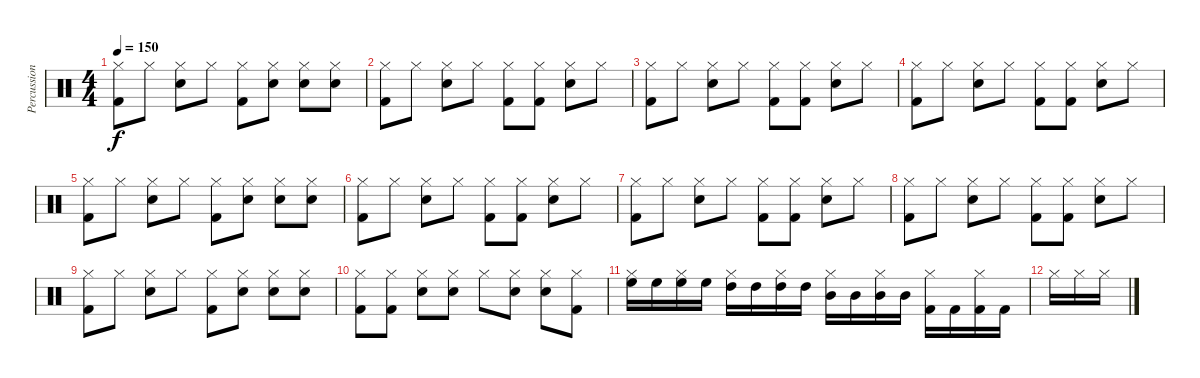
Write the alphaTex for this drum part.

\track ("Percussion" "Percussion") {instrument percussion}
\staff {score}
\articulation defaults
\ts (4 4)
\tempo 150
\clef neutral
\ks c
("Hi-Hat (closed)" "Kick (hit) 2").8{dy f} "Hi-Hat (closed)".8 ("Hi-Hat (closed)" "Electric Snare (hit)").8 "Hi-Hat (closed)".8 ("Hi-Hat (closed)" "Kick (hit) 2").8 ("Hi-Hat (closed)" "Electric Snare (hit)").8 ("Hi-Hat (closed)" "Electric Snare (hit)").8 ("Hi-Hat (closed)" "Electric Snare (hit)").8 |
("Hi-Hat (closed)" "Kick (hit) 2").8 "Hi-Hat (closed)".8 ("Hi-Hat (closed)" "Electric Snare (hit)").8 "Hi-Hat (closed)".8 ("Hi-Hat (closed)" "Kick (hit) 2").8 ("Hi-Hat (closed)" "Kick (hit) 2").8 ("Hi-Hat (closed)" "Electric Snare (hit)").8 "Hi-Hat (closed)".8 |
("Hi-Hat (closed)" "Kick (hit) 2").8 "Hi-Hat (closed)".8 ("Hi-Hat (closed)" "Electric Snare (hit)").8 "Hi-Hat (closed)".8 ("Hi-Hat (closed)" "Kick (hit) 2").8 ("Hi-Hat (closed)" "Kick (hit) 2").8 ("Hi-Hat (closed)" "Electric Snare (hit)").8 "Hi-Hat (closed)".8 |
("Hi-Hat (closed)" "Kick (hit) 2").8 "Hi-Hat (closed)".8 ("Hi-Hat (closed)" "Electric Snare (hit)").8 "Hi-Hat (closed)".8 ("Hi-Hat (closed)" "Kick (hit) 2").8 ("Hi-Hat (closed)" "Kick (hit) 2").8 ("Hi-Hat (closed)" "Electric Snare (hit)").8 "Hi-Hat (closed)".8 |
("Hi-Hat (closed)" "Kick (hit) 2").8 "Hi-Hat (closed)".8 ("Hi-Hat (closed)" "Electric Snare (hit)").8 "Hi-Hat (closed)".8 ("Hi-Hat (closed)" "Kick (hit) 2").8 ("Hi-Hat (closed)" "Electric Snare (hit)").8 ("Hi-Hat (closed)" "Electric Snare (hit)").8 ("Hi-Hat (closed)" "Electric Snare (hit)").8 |
("Hi-Hat (closed)" "Kick (hit) 2").8 "Hi-Hat (closed)".8 ("Hi-Hat (closed)" "Electric Snare (hit)").8 "Hi-Hat (closed)".8 ("Hi-Hat (closed)" "Kick (hit) 2").8 ("Hi-Hat (closed)" "Kick (hit) 2").8 ("Hi-Hat (closed)" "Electric Snare (hit)").8 "Hi-Hat (closed)".8 |
("Hi-Hat (closed)" "Kick (hit) 2").8 "Hi-Hat (closed)".8 ("Hi-Hat (closed)" "Electric Snare (hit)").8 "Hi-Hat (closed)".8 ("Hi-Hat (closed)" "Kick (hit) 2").8 ("Hi-Hat (closed)" "Kick (hit) 2").8 ("Hi-Hat (closed)" "Electric Snare (hit)").8 "Hi-Hat (closed)".8 |
("Hi-Hat (closed)" "Kick (hit) 2").8 "Hi-Hat (closed)".8 ("Hi-Hat (closed)" "Electric Snare (hit)").8 "Hi-Hat (closed)".8 ("Hi-Hat (closed)" "Kick (hit) 2").8 ("Hi-Hat (closed)" "Kick (hit) 2").8 ("Hi-Hat (closed)" "Electric Snare (hit)").8 "Hi-Hat (closed)".8 |
("Hi-Hat (closed)" "Kick (hit) 2").8 "Hi-Hat (closed)".8 ("Hi-Hat (closed)" "Electric Snare (hit)").8 "Hi-Hat (closed)".8 ("Hi-Hat (closed)" "Kick (hit) 2").8 ("Hi-Hat (closed)" "Electric Snare (hit)").8 ("Hi-Hat (closed)" "Electric Snare (hit)").8 ("Hi-Hat (closed)" "Electric Snare (hit)").8 |
("Hi-Hat (closed)" "Kick (hit) 2").8 ("Hi-Hat (closed)" "Kick (hit) 2").8 ("Hi-Hat (closed)" "Electric Snare (hit)").8 ("Hi-Hat (closed)" "Electric Snare (hit)").8 "Hi-Hat (closed)".8 ("Hi-Hat (closed)" "Electric Snare (hit)").8 ("Hi-Hat (closed)" "Electric Snare (hit)").8 ("Hi-Hat (closed)" "Kick (hit) 2").8 |
("Hi-Hat (closed)" "High Floor Tom (hit)").16 "High Floor Tom (hit)".16 ("Hi-Hat (closed)" "High Floor Tom (hit)").16 "High Floor Tom (hit)".16 ("Hi-Hat (closed)" "High Tom (hit)").16 "High Tom (hit)".16 ("Hi-Hat (closed)" "High Tom (hit)").16 "High Tom (hit)".16 ("Hi-Hat (closed)" "Mid Tom (hit)").16 "Mid Tom (hit)".16 ("Hi-Hat (closed)" "Mid Tom (hit)").16 "Mid Tom (hit)".16 ("Hi-Hat (closed)" "Kick (hit) 2").16 "Kick (hit) 2".16 ("Hi-Hat (closed)" "Kick (hit) 2").16 "Kick (hit) 2".16 |
"Hi-Hat (closed)".16 "Hi-Hat (closed)".16 "Hi-Hat (closed)".16
